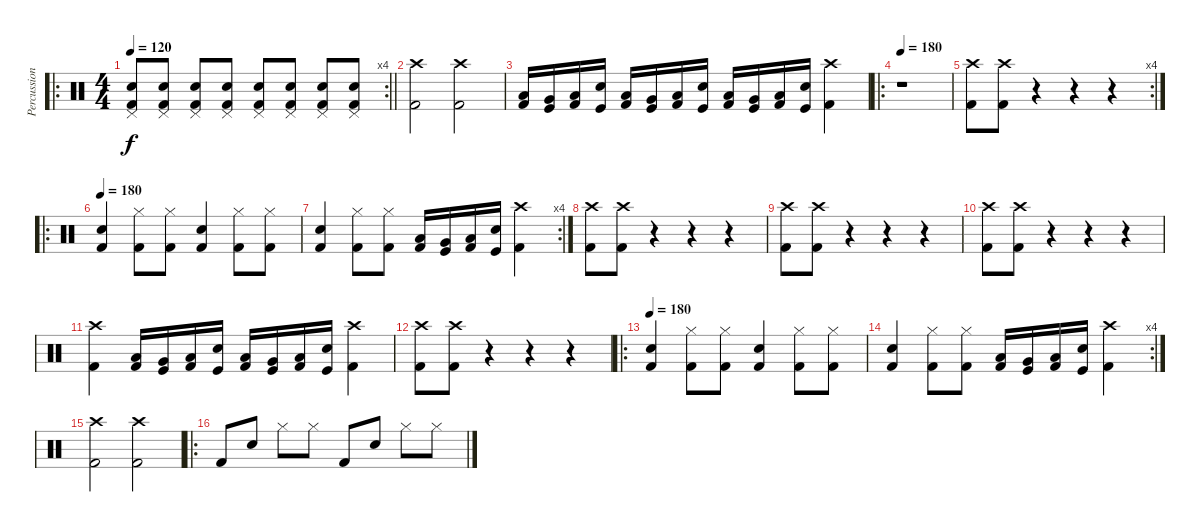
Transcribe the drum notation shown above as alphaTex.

\track ("Percussion" "Percussion") {instrument percussion}
\staff {score}
\articulation defaults
\ro
\rc 4
\ts (4 4)
\tempo 120
\clef neutral
\barLineRight lightlight
\ks c
("Pedal Hi-Hat (hit)" "Electric Snare (hit)" "Kick (hit) 2").8{dy f} ("Pedal Hi-Hat (hit)" "Electric Snare (hit)" "Kick (hit) 2").8 ("Pedal Hi-Hat (hit)" "Electric Snare (hit)" "Kick (hit) 2").8 ("Pedal Hi-Hat (hit)" "Electric Snare (hit)" "Kick (hit) 2").8 ("Pedal Hi-Hat (hit)" "Electric Snare (hit)" "Kick (hit) 2").8 ("Pedal Hi-Hat (hit)" "Electric Snare (hit)" "Kick (hit) 2").8 ("Pedal Hi-Hat (hit)" "Electric Snare (hit)" "Kick (hit) 2").8 ("Pedal Hi-Hat (hit)" "Electric Snare (hit)" "Kick (hit) 2").8 |
("Crash high (hit)" "Kick (hit) 2").2 ("Crash high (hit)" "Kick (hit) 2").2 |
("Low Tom (hit)" "Kick (hit) 2").16 ("Very Low Tom (hit)" "Kick (hit)").16 ("Low Floor Tom (hit)" "Kick (hit) 2").16 ("Electric Snare (hit)" "Kick (hit)").16 ("Low Tom (hit)" "Kick (hit) 2").16 ("Very Low Tom (hit)" "Kick (hit)").16 ("Low Floor Tom (hit)" "Kick (hit) 2").16 ("Electric Snare (hit)" "Kick (hit)").16 ("Low Tom (hit)" "Kick (hit) 2").16 ("Very Low Tom (hit)" "Kick (hit)").16 ("Low Floor Tom (hit)" "Kick (hit) 2").16 ("Electric Snare (hit)" "Kick (hit)").16 ("Crash high (hit)" "Kick (hit) 2").4 |
\ro
\tempo 180
r.1 |
\rc 4
("Crash high (hit)" "Kick (hit) 2").8 ("Crash high (hit)" "Kick (hit) 2").8 r.4 r.4 r.4 |
\ro
\tempo 180
("Electric Snare (hit)" "Kick (hit) 2").4 ("Hi-Hat (closed)" "Kick (hit) 2").8 ("Hi-Hat (closed)" "Kick (hit) 2").8 ("Electric Snare (hit)" "Kick (hit) 2").4 ("Hi-Hat (closed)" "Kick (hit) 2").8 ("Hi-Hat (closed)" "Kick (hit) 2").8 |
\rc 4
("Electric Snare (hit)" "Kick (hit) 2").4 ("Hi-Hat (closed)" "Kick (hit) 2").8 ("Hi-Hat (closed)" "Kick (hit) 2").8 ("Low Tom (hit)" "Kick (hit) 2").16 ("Very Low Tom (hit)" "Kick (hit)").16 ("Low Floor Tom (hit)" "Kick (hit) 2").16 ("Electric Snare (hit)" "Kick (hit)").16 ("Crash high (hit)" "Kick (hit) 2").4 |
("Crash high (hit)" "Kick (hit) 2").8 ("Crash high (hit)" "Kick (hit) 2").8 r.4 r.4 r.4 |
("Crash high (hit)" "Kick (hit) 2").8 ("Crash high (hit)" "Kick (hit) 2").8 r.4 r.4 r.4 |
("Crash high (hit)" "Kick (hit) 2").8 ("Crash high (hit)" "Kick (hit) 2").8 r.4 r.4 r.4 |
("Crash high (hit)" "Kick (hit) 2").4 ("Low Tom (hit)" "Kick (hit) 2").16 ("Very Low Tom (hit)" "Kick (hit)").16 ("Low Floor Tom (hit)" "Kick (hit) 2").16 ("Electric Snare (hit)" "Kick (hit)").16 ("Low Tom (hit)" "Kick (hit) 2").16 ("Very Low Tom (hit)" "Kick (hit)").16 ("Low Floor Tom (hit)" "Kick (hit) 2").16 ("Electric Snare (hit)" "Kick (hit)").16 ("Crash high (hit)" "Kick (hit) 2").4 |
("Crash high (hit)" "Kick (hit) 2").8 ("Crash high (hit)" "Kick (hit) 2").8 r.4 r.4 r.4 |
\ro
\tempo 180
("Electric Snare (hit)" "Kick (hit) 2").4 ("Hi-Hat (closed)" "Kick (hit) 2").8 ("Hi-Hat (closed)" "Kick (hit) 2").8 ("Electric Snare (hit)" "Kick (hit) 2").4 ("Hi-Hat (closed)" "Kick (hit) 2").8 ("Hi-Hat (closed)" "Kick (hit) 2").8 |
\rc 4
("Electric Snare (hit)" "Kick (hit) 2").4 ("Hi-Hat (closed)" "Kick (hit) 2").8 ("Hi-Hat (closed)" "Kick (hit) 2").8 ("Low Tom (hit)" "Kick (hit) 2").16 ("Very Low Tom (hit)" "Kick (hit)").16 ("Low Floor Tom (hit)" "Kick (hit) 2").16 ("Electric Snare (hit)" "Kick (hit)").16 ("Crash high (hit)" "Kick (hit) 2").4 |
("Crash high (hit)" "Kick (hit) 2").2 ("Crash high (hit)" "Kick (hit) 2").2 |
\ro "Kick (hit) 2".8 "Electric Snare (hit)".8 "Hi-Hat (closed)".8 "Hi-Hat (closed)".8 "Kick (hit) 2".8 "Electric Snare (hit)".8 "Hi-Hat (closed)".8 "Hi-Hat (closed)".8
